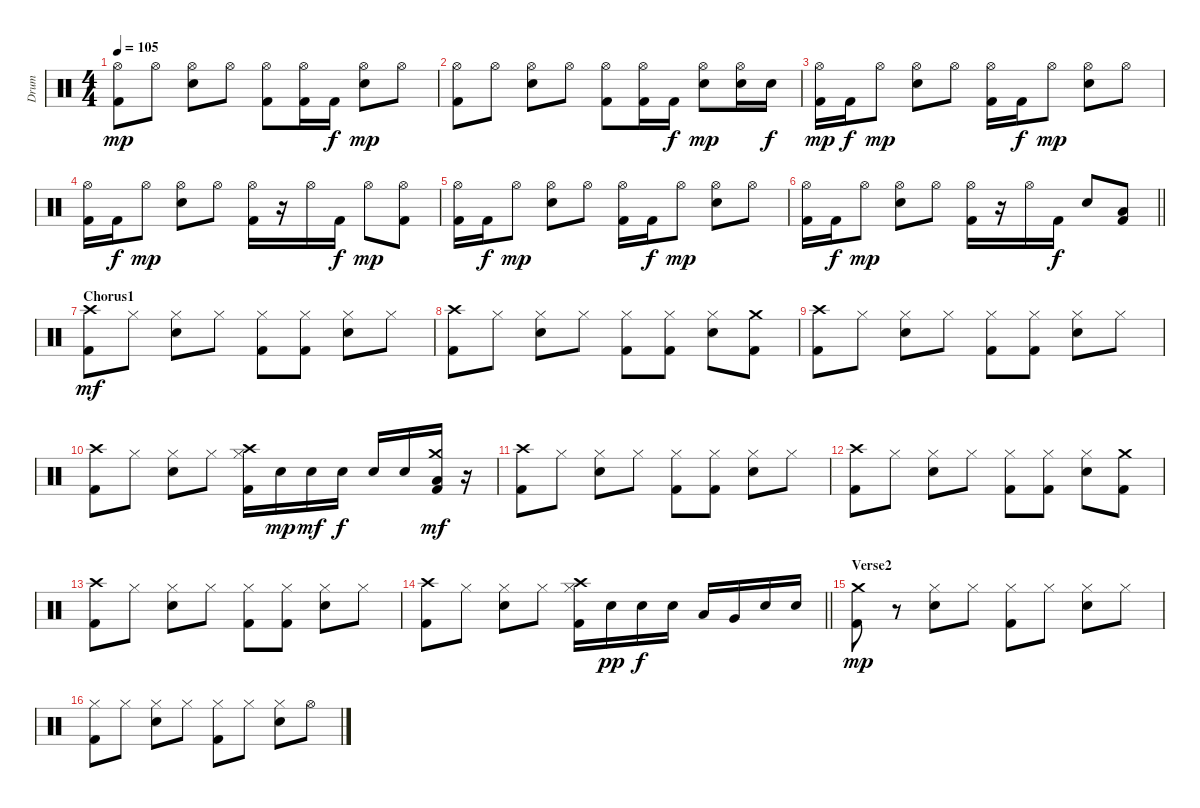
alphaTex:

\track ("Drum" "Drum") {instrument percussion}
\staff {score}
\articulation defaults
\ts (4 4)
\tempo 105
\clef neutral
\ks c
("Hi-Hat (open)" "Kick (hit) 2").8{dy mp} "Hi-Hat (open)".8 ("Hi-Hat (open)" "Electric Snare (hit)").8 "Hi-Hat (open)".8 ("Hi-Hat (open)" "Kick (hit) 2").8 ("Hi-Hat (open)" "Kick (hit) 2").16 "Kick (hit) 2".16{dy f} ("Hi-Hat (open)" "Electric Snare (hit)").8{dy mp} "Hi-Hat (open)".8 |
("Hi-Hat (open)" "Kick (hit) 2").8 "Hi-Hat (open)".8 ("Hi-Hat (open)" "Electric Snare (hit)").8 "Hi-Hat (open)".8 ("Hi-Hat (open)" "Kick (hit) 2").8 ("Hi-Hat (open)" "Kick (hit) 2").16 "Kick (hit) 2".16{dy f} ("Hi-Hat (open)" "Electric Snare (hit)").8{dy mp} ("Hi-Hat (open)" "Electric Snare (hit)").16 "Electric Snare (hit)".16{dy f} |
("Hi-Hat (open)" "Kick (hit) 2").16{dy mp} "Kick (hit) 2".16{dy f} "Hi-Hat (open)".8{dy mp} ("Hi-Hat (open)" "Electric Snare (hit)").8 "Hi-Hat (open)".8 ("Hi-Hat (open)" "Kick (hit) 2").16 "Kick (hit) 2".16{dy f} "Hi-Hat (open)".8{dy mp} ("Hi-Hat (open)" "Electric Snare (hit)").8 "Hi-Hat (open)".8 |
("Hi-Hat (open)" "Kick (hit) 2").16 "Kick (hit) 2".16{dy f} "Hi-Hat (open)".8{dy mp} ("Hi-Hat (open)" "Electric Snare (hit)").8 "Hi-Hat (open)".8 ("Hi-Hat (open)" "Kick (hit) 2").16 r.16 "Hi-Hat (open)".16 "Kick (hit) 2".16{dy f} "Hi-Hat (open)".8{dy mp} ("Hi-Hat (open)" "Kick (hit) 2").8 |
("Hi-Hat (open)" "Kick (hit) 2").16 "Kick (hit) 2".16{dy f} "Hi-Hat (open)".8{dy mp} ("Hi-Hat (open)" "Electric Snare (hit)").8 "Hi-Hat (open)".8 ("Hi-Hat (open)" "Kick (hit) 2").16 "Kick (hit) 2".16{dy f} "Hi-Hat (open)".8{dy mp} ("Hi-Hat (open)" "Electric Snare (hit)").8 "Hi-Hat (open)".8 |
\barLineRight lightlight
("Hi-Hat (open)" "Kick (hit) 2").16 "Kick (hit) 2".16{dy f} "Hi-Hat (open)".8{dy mp} ("Hi-Hat (open)" "Electric Snare (hit)").8 "Hi-Hat (open)".8 ("Hi-Hat (open)" "Kick (hit) 2").16 r.16 "Hi-Hat (open)".16 "Kick (hit) 2".16{dy f} "Electric Snare (hit)".8 ("Low Tom (hit)" "Kick (hit) 2").8 |
\section ("" "Chorus1")
("Crash high (hit)" "Kick (hit) 2").8{dy mf} "Hi-Hat (closed)".8 ("Hi-Hat (closed)" "Electric Snare (hit)").8 "Hi-Hat (closed)".8 ("Hi-Hat (closed)" "Kick (hit) 2").8 ("Hi-Hat (closed)" "Kick (hit) 2").8 ("Hi-Hat (closed)" "Electric Snare (hit)").8 "Hi-Hat (closed)".8 |
("Crash high (hit)" "Kick (hit) 2").8 "Hi-Hat (closed)".8 ("Hi-Hat (closed)" "Electric Snare (hit)").8 "Hi-Hat (closed)".8 ("Hi-Hat (closed)" "Kick (hit) 2").8 ("Hi-Hat (closed)" "Kick (hit) 2").8 ("Hi-Hat (closed)" "Electric Snare (hit)").8 ("Crash medium (hit)" "Kick (hit) 2").8 |
("Crash high (hit)" "Kick (hit) 2").8 "Hi-Hat (closed)".8 ("Hi-Hat (closed)" "Electric Snare (hit)").8 "Hi-Hat (closed)".8 ("Hi-Hat (closed)" "Kick (hit) 2").8 ("Hi-Hat (closed)" "Kick (hit) 2").8 ("Hi-Hat (closed)" "Electric Snare (hit)").8 "Hi-Hat (closed)".8 |
("Crash high (hit)" "Kick (hit) 2").8 "Hi-Hat (closed)".8 ("Hi-Hat (closed)" "Electric Snare (hit)").8 "Hi-Hat (closed)".8 ("Crash high (hit)" "Hi-Hat (closed)" "Kick (hit) 2").16 "Electric Snare (hit)".16{dy mp} "Electric Snare (hit)".16{dy mf} "Electric Snare (hit)".16{dy f} "Electric Snare (hit)".16 "Electric Snare (hit)".16 ("Crash medium (hit)" "Low Floor Tom (hit)" "Kick (hit) 2").16{dy mf} r.16 |
("Crash high (hit)" "Kick (hit) 2").8 "Hi-Hat (closed)".8 ("Hi-Hat (closed)" "Electric Snare (hit)").8 "Hi-Hat (closed)".8 ("Hi-Hat (closed)" "Kick (hit) 2").8 ("Hi-Hat (closed)" "Kick (hit) 2").8 ("Hi-Hat (closed)" "Electric Snare (hit)").8 "Hi-Hat (closed)".8 |
("Crash high (hit)" "Kick (hit) 2").8 "Hi-Hat (closed)".8 ("Hi-Hat (closed)" "Electric Snare (hit)").8 "Hi-Hat (closed)".8 ("Hi-Hat (closed)" "Kick (hit) 2").8 ("Hi-Hat (closed)" "Kick (hit) 2").8 ("Hi-Hat (closed)" "Electric Snare (hit)").8 ("Crash medium (hit)" "Kick (hit) 2").8 |
("Crash high (hit)" "Kick (hit) 2").8 "Hi-Hat (closed)".8 ("Hi-Hat (closed)" "Electric Snare (hit)").8 "Hi-Hat (closed)".8 ("Hi-Hat (closed)" "Kick (hit) 2").8 ("Hi-Hat (closed)" "Kick (hit) 2").8 ("Hi-Hat (closed)" "Electric Snare (hit)").8 "Hi-Hat (closed)".8 |
\barLineRight lightlight
("Crash high (hit)" "Kick (hit) 2").8 "Hi-Hat (closed)".8 ("Hi-Hat (closed)" "Electric Snare (hit)").8 "Hi-Hat (closed)".8 ("Crash high (hit)" "Hi-Hat (closed)" "Kick (hit) 2").16 "Electric Snare (hit)".16{dy pp} "Electric Snare (hit)".16{dy f} "Electric Snare (hit)".16 "Low Tom (hit)".16 "Very Low Tom (hit)".16 "Electric Snare (hit)".16 "Electric Snare (hit)".16 |
\section ("" "Verse2")
("Crash medium (hit)" "Kick (hit) 2").8{dy mp} r.8 ("Hi-Hat (closed)" "Electric Snare (hit)").8 "Hi-Hat (closed)".8 ("Hi-Hat (closed)" "Kick (hit) 2").8 "Hi-Hat (closed)".8 ("Hi-Hat (closed)" "Electric Snare (hit)").8 "Hi-Hat (closed)".8 |
("Hi-Hat (closed)" "Kick (hit) 2").8 "Hi-Hat (closed)".8 ("Hi-Hat (closed)" "Electric Snare (hit)").8 "Hi-Hat (closed)".8 ("Hi-Hat (closed)" "Kick (hit) 2").8 "Hi-Hat (closed)".8 ("Hi-Hat (closed)" "Electric Snare (hit)").8 "Hi-Hat (open)".8
